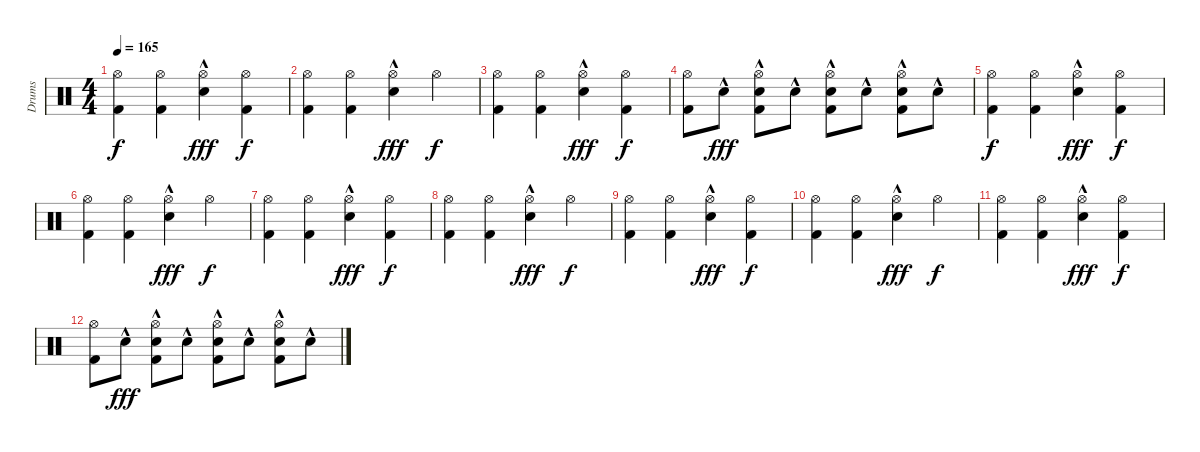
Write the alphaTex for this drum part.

\track ("Drums" "Drums") {instrument percussion}
\staff {score}
\articulation defaults
\ts (4 4)
\tempo 165
\clef neutral
\ks c
("Hi-Hat (open)" "Kick (hit) 2").4{dy f} ("Hi-Hat (open)" "Kick (hit) 2").4 ("Hi-Hat (open)" "Electric Snare (hit)"{hac}).4{dy fff} ("Hi-Hat (open)" "Kick (hit) 2").4{dy f} |
("Hi-Hat (open)" "Kick (hit) 2").4 ("Hi-Hat (open)" "Kick (hit) 2").4 ("Hi-Hat (open)" "Electric Snare (hit)"{hac}).4{dy fff} "Hi-Hat (open)".4{dy f} |
("Hi-Hat (open)" "Kick (hit) 2").4 ("Hi-Hat (open)" "Kick (hit) 2").4 ("Hi-Hat (open)" "Electric Snare (hit)"{hac}).4{dy fff} ("Hi-Hat (open)" "Kick (hit) 2").4{dy f} |
("Hi-Hat (open)" "Kick (hit) 2").8 "Electric Snare (hit)"{hac}.8{dy fff} ("Hi-Hat (open)" "Electric Snare (hit)"{hac} "Kick (hit) 2").8 "Electric Snare (hit)"{hac}.8 ("Hi-Hat (open)" "Electric Snare (hit)"{hac} "Kick (hit) 2").8 "Electric Snare (hit)"{hac}.8 ("Hi-Hat (open)" "Electric Snare (hit)"{hac} "Kick (hit) 2").8 "Electric Snare (hit)"{hac}.8 |
("Hi-Hat (open)" "Kick (hit) 2").4{dy f} ("Hi-Hat (open)" "Kick (hit) 2").4 ("Hi-Hat (open)" "Electric Snare (hit)"{hac}).4{dy fff} ("Hi-Hat (open)" "Kick (hit) 2").4{dy f} |
("Hi-Hat (open)" "Kick (hit) 2").4 ("Hi-Hat (open)" "Kick (hit) 2").4 ("Hi-Hat (open)" "Electric Snare (hit)"{hac}).4{dy fff} "Hi-Hat (open)".4{dy f} |
("Hi-Hat (open)" "Kick (hit) 2").4 ("Hi-Hat (open)" "Kick (hit) 2").4 ("Hi-Hat (open)" "Electric Snare (hit)"{hac}).4{dy fff} ("Hi-Hat (open)" "Kick (hit) 2").4{dy f} |
("Hi-Hat (open)" "Kick (hit) 2").4 ("Hi-Hat (open)" "Kick (hit) 2").4 ("Hi-Hat (open)" "Electric Snare (hit)"{hac}).4{dy fff} "Hi-Hat (open)".4{dy f} |
("Hi-Hat (open)" "Kick (hit) 2").4 ("Hi-Hat (open)" "Kick (hit) 2").4 ("Hi-Hat (open)" "Electric Snare (hit)"{hac}).4{dy fff} ("Hi-Hat (open)" "Kick (hit) 2").4{dy f} |
("Hi-Hat (open)" "Kick (hit) 2").4 ("Hi-Hat (open)" "Kick (hit) 2").4 ("Hi-Hat (open)" "Electric Snare (hit)"{hac}).4{dy fff} "Hi-Hat (open)".4{dy f} |
("Hi-Hat (open)" "Kick (hit) 2").4 ("Hi-Hat (open)" "Kick (hit) 2").4 ("Hi-Hat (open)" "Electric Snare (hit)"{hac}).4{dy fff} ("Hi-Hat (open)" "Kick (hit) 2").4{dy f} |
("Hi-Hat (open)" "Kick (hit) 2").8 "Electric Snare (hit)"{hac}.8{dy fff} ("Hi-Hat (open)" "Electric Snare (hit)"{hac} "Kick (hit) 2").8 "Electric Snare (hit)"{hac}.8 ("Hi-Hat (open)" "Electric Snare (hit)"{hac} "Kick (hit) 2").8 "Electric Snare (hit)"{hac}.8 ("Hi-Hat (open)" "Electric Snare (hit)"{hac} "Kick (hit) 2").8 "Electric Snare (hit)"{hac}.8
